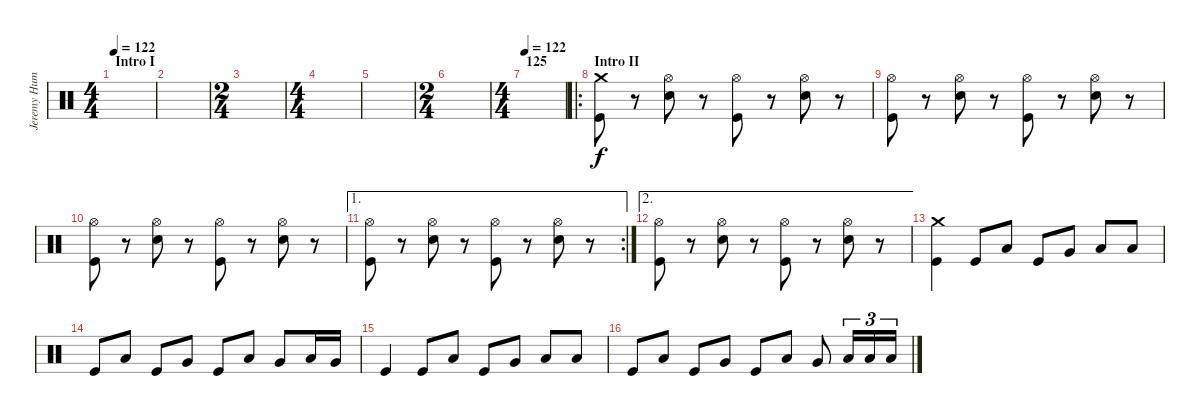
\track ("Jeremy Hummel Drums]" "Jeremy Hum") {instrument percussion}
\staff {score}
\articulation defaults
\ts (4 4)
\section ("" "Intro I")
\tempo 122
\tempo 90
\tempo 122
\clef neutral
\ks c
|
|
\ts (2 4)
|
\ts (4 4)
|
|
\ts (2 4)
|
\ts (4 4)
\section ("" "125")
\tempo 122
|
\ro
\section ("" "Intro II")
("Crash medium (hit)" "Kick (hit)").8 r.8 ("Hi-Hat (open)" "Electric Snare (hit)").8 r.8 ("Hi-Hat (open)" "Kick (hit)").8 r.8 ("Hi-Hat (open)" "Electric Snare (hit)").8 r.8 |
("Hi-Hat (open)" "Kick (hit)").8 r.8 ("Hi-Hat (open)" "Electric Snare (hit)").8 r.8 ("Hi-Hat (open)" "Kick (hit)").8 r.8 ("Hi-Hat (open)" "Electric Snare (hit)").8 r.8 |
("Hi-Hat (open)" "Kick (hit)").8 r.8 ("Hi-Hat (open)" "Electric Snare (hit)").8 r.8 ("Hi-Hat (open)" "Kick (hit)").8 r.8 ("Hi-Hat (open)" "Electric Snare (hit)").8 r.8 |
\ae 1
\rc 2
("Hi-Hat (open)" "Kick (hit)").8 r.8 ("Hi-Hat (open)" "Electric Snare (hit)").8 r.8 ("Hi-Hat (open)" "Kick (hit)").8 r.8 ("Hi-Hat (open)" "Electric Snare (hit)").8 r.8 |
\ae 2
("Hi-Hat (open)" "Kick (hit)").8 r.8 ("Hi-Hat (open)" "Electric Snare (hit)").8 r.8 ("Hi-Hat (open)" "Kick (hit)").8 r.8 ("Hi-Hat (open)" "Electric Snare (hit)").8 r.8 |
("Crash medium (hit)" "Kick (hit)").4 "Kick (hit)".8 "Low Tom (hit)".8 "Kick (hit)".8 "Very Low Tom (hit)".8 "Low Floor Tom (hit)".8 "Low Tom (hit)".8 |
"Kick (hit)".8 "Low Tom (hit)".8 "Kick (hit)".8 "Very Low Tom (hit)".8 "Kick (hit)".8 "Low Floor Tom (hit)".8 "Very Low Tom (hit)".8 "Low Tom (hit)".16 "Very Low Tom (hit)".16 |
"Kick (hit)".4 "Kick (hit)".8 "Low Tom (hit)".8 "Kick (hit)".8 "Very Low Tom (hit)".8 "Low Floor Tom (hit)".8 "Low Tom (hit)".8 |
"Kick (hit)".8 "Low Tom (hit)".8 "Kick (hit)".8 "Very Low Tom (hit)".8 "Kick (hit)".8 "Low Floor Tom (hit)".8 "Very Low Tom (hit)".8 "Low Tom (hit)".16{tu (3 2)} "Low Tom (hit)".16{tu (3 2)} "Low Tom (hit)".16{tu (3 2)}
